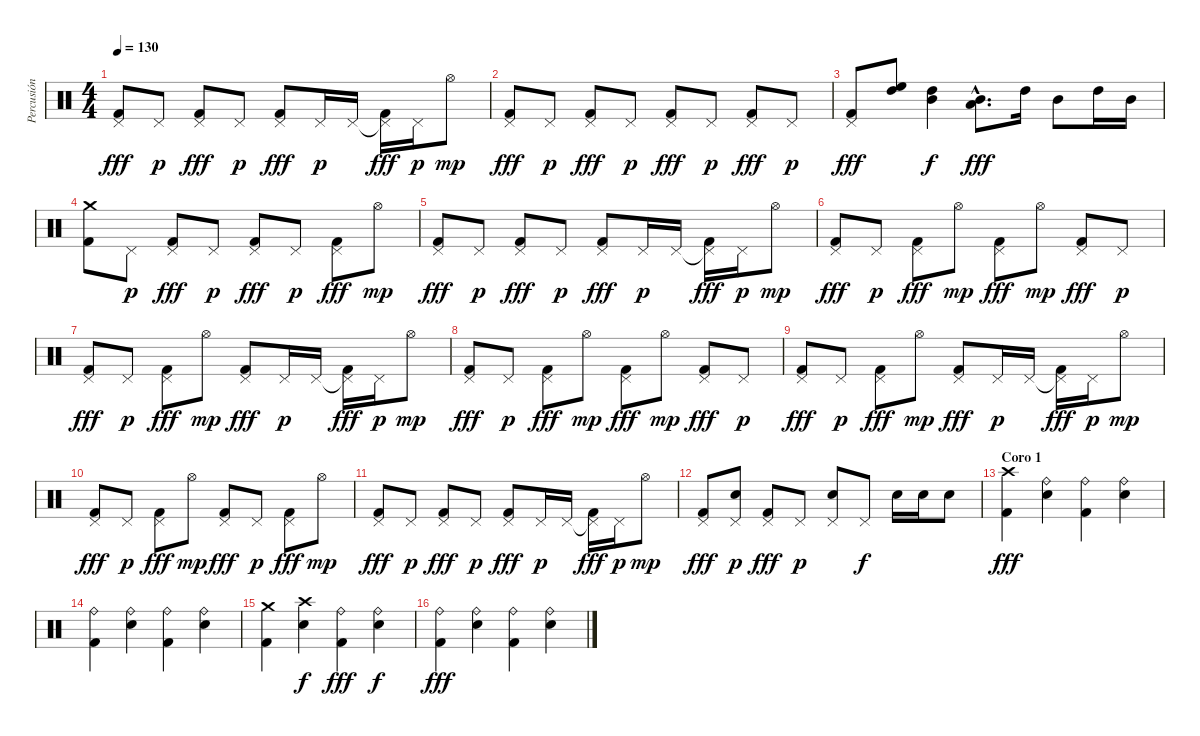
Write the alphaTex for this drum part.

\track ("Percusión" "Percusión") {instrument percussion}
\staff {score}
\articulation defaults
\ts (4 4)
\tempo 130
\clef neutral
\ks c
("Pedal Hi-Hat (hit)" "Kick (hit) 2").8{dy fff} "Pedal Hi-Hat (hit)".8{dy p} ("Pedal Hi-Hat (hit)" "Kick (hit) 2").8{dy fff} "Pedal Hi-Hat (hit)".8{dy p} ("Pedal Hi-Hat (hit)" "Kick (hit) 2").8{dy fff} "Pedal Hi-Hat (hit)".16{dy p} "Pedal Hi-Hat (hit)".16 ("Pedal Hi-Hat (hit)"{t} "Kick (hit) 2").16{dy fff} "Pedal Hi-Hat (hit)".16{dy p} "Hi-Hat (open)".8{dy mp} |
("Pedal Hi-Hat (hit)" "Kick (hit) 2").8{dy fff} "Pedal Hi-Hat (hit)".8{dy p} ("Pedal Hi-Hat (hit)" "Kick (hit) 2").8{dy fff} "Pedal Hi-Hat (hit)".8{dy p} ("Pedal Hi-Hat (hit)" "Kick (hit) 2").8{dy fff} "Pedal Hi-Hat (hit)".8{dy p} ("Pedal Hi-Hat (hit)" "Kick (hit) 2").8{dy fff} "Pedal Hi-Hat (hit)".8{dy p} |
("Pedal Hi-Hat (hit)" "Kick (hit) 2").8{dy fff} ("High Tom (hit)" "High Floor Tom (hit)").8 ("Mid Tom (hit)" "High Tom (hit)").4{dy f} ("Low Tom (hit)"{hac} "Mid Tom (hit)"{hac}).8{d dy fff} "High Tom (hit)".16 "Mid Tom (hit)".8 "High Tom (hit)".16 "Mid Tom (hit)".16 |
("Crash medium (hit)" "Kick (hit) 2").8 "Pedal Hi-Hat (hit)".8{dy p} ("Pedal Hi-Hat (hit)" "Kick (hit) 2").8{dy fff} "Pedal Hi-Hat (hit)".8{dy p} ("Pedal Hi-Hat (hit)" "Kick (hit) 2").8{dy fff} "Pedal Hi-Hat (hit)".8{dy p} ("Pedal Hi-Hat (hit)" "Kick (hit) 2").8{dy fff} "Hi-Hat (open)".8{dy mp} |
("Pedal Hi-Hat (hit)" "Kick (hit) 2").8{dy fff} "Pedal Hi-Hat (hit)".8{dy p} ("Pedal Hi-Hat (hit)" "Kick (hit) 2").8{dy fff} "Pedal Hi-Hat (hit)".8{dy p} ("Pedal Hi-Hat (hit)" "Kick (hit) 2").8{dy fff} "Pedal Hi-Hat (hit)".16{dy p} "Pedal Hi-Hat (hit)".16 ("Pedal Hi-Hat (hit)"{t} "Kick (hit) 2").16{dy fff} "Pedal Hi-Hat (hit)".16{dy p} "Hi-Hat (open)".8{dy mp} |
("Pedal Hi-Hat (hit)" "Kick (hit) 2").8{dy fff} "Pedal Hi-Hat (hit)".8{dy p} ("Pedal Hi-Hat (hit)" "Kick (hit) 2").8{dy fff} "Hi-Hat (open)".8{dy mp} ("Pedal Hi-Hat (hit)" "Kick (hit) 2").8{dy fff} "Hi-Hat (open)".8{dy mp} ("Pedal Hi-Hat (hit)" "Kick (hit) 2").8{dy fff} "Pedal Hi-Hat (hit)".8{dy p} |
("Pedal Hi-Hat (hit)" "Kick (hit) 2").8{dy fff} "Pedal Hi-Hat (hit)".8{dy p} ("Pedal Hi-Hat (hit)" "Kick (hit) 2").8{dy fff} "Hi-Hat (open)".8{dy mp} ("Pedal Hi-Hat (hit)" "Kick (hit) 2").8{dy fff} "Pedal Hi-Hat (hit)".16{dy p} "Pedal Hi-Hat (hit)".16 ("Pedal Hi-Hat (hit)"{t} "Kick (hit) 2").16{dy fff} "Pedal Hi-Hat (hit)".16{dy p} "Hi-Hat (open)".8{dy mp} |
("Pedal Hi-Hat (hit)" "Kick (hit) 2").8{dy fff} "Pedal Hi-Hat (hit)".8{dy p} ("Pedal Hi-Hat (hit)" "Kick (hit) 2").8{dy fff} "Hi-Hat (open)".8{dy mp} ("Pedal Hi-Hat (hit)" "Kick (hit) 2").8{dy fff} "Hi-Hat (open)".8{dy mp} ("Pedal Hi-Hat (hit)" "Kick (hit) 2").8{dy fff} "Pedal Hi-Hat (hit)".8{dy p} |
("Pedal Hi-Hat (hit)" "Kick (hit) 2").8{dy fff} "Pedal Hi-Hat (hit)".8{dy p} ("Pedal Hi-Hat (hit)" "Kick (hit) 2").8{dy fff} "Hi-Hat (open)".8{dy mp} ("Pedal Hi-Hat (hit)" "Kick (hit) 2").8{dy fff} "Pedal Hi-Hat (hit)".16{dy p} "Pedal Hi-Hat (hit)".16 ("Pedal Hi-Hat (hit)"{t} "Kick (hit) 2").16{dy fff} "Pedal Hi-Hat (hit)".16{dy p} "Hi-Hat (open)".8{dy mp} |
("Pedal Hi-Hat (hit)" "Kick (hit) 2").8{dy fff} "Pedal Hi-Hat (hit)".8{dy p} ("Pedal Hi-Hat (hit)" "Kick (hit) 2").8{dy fff} "Hi-Hat (open)".8{dy mp} ("Pedal Hi-Hat (hit)" "Kick (hit) 2").8{dy fff} "Pedal Hi-Hat (hit)".8{dy p} ("Pedal Hi-Hat (hit)" "Kick (hit) 2").8{dy fff} "Hi-Hat (open)".8{dy mp} |
("Pedal Hi-Hat (hit)" "Kick (hit) 2").8{dy fff} "Pedal Hi-Hat (hit)".8{dy p} ("Pedal Hi-Hat (hit)" "Kick (hit) 2").8{dy fff} "Pedal Hi-Hat (hit)".8{dy p} ("Pedal Hi-Hat (hit)" "Kick (hit) 2").8{dy fff} "Pedal Hi-Hat (hit)".16{dy p} "Pedal Hi-Hat (hit)".16 ("Pedal Hi-Hat (hit)"{t} "Kick (hit) 2").16{dy fff} "Pedal Hi-Hat (hit)".16{dy p} "Hi-Hat (open)".8{dy mp} |
("Pedal Hi-Hat (hit)" "Kick (hit) 2").8{dy fff} ("Pedal Hi-Hat (hit)" "Snare (hit) 2").8{dy p} ("Pedal Hi-Hat (hit)" "Kick (hit) 2").8{dy fff} "Pedal Hi-Hat (hit)".8{dy p} ("Pedal Hi-Hat (hit)" "Snare (hit) 2").8 "Pedal Hi-Hat (hit)".8{dy f} "Snare (hit) 2".16 "Snare (hit) 2".16 "Snare (hit) 2".8 |
\section ("" "Coro 1")
("Crash high (hit)" "Kick (hit) 2").4{dy fff} ("Ride (bell)" "Snare (hit) 2").4 ("Ride (bell)" "Kick (hit) 2").4 ("Ride (bell)" "Snare (hit) 2").4 |
("Ride (bell)" "Kick (hit) 2").4 ("Ride (bell)" "Snare (hit) 2").4 ("Ride (bell)" "Kick (hit) 2").4 ("Ride (bell)" "Snare (hit) 2").4 |
("Crash medium (hit)" "Kick (hit) 2").4 ("Crash high (hit)" "Snare (hit) 2").4{dy f} ("Ride (bell)" "Kick (hit) 2").4{dy fff} ("Ride (bell)" "Snare (hit) 2").4{dy f} |
("Ride (bell)" "Kick (hit) 2").4{dy fff} ("Ride (bell)" "Snare (hit) 2").4 ("Ride (bell)" "Kick (hit) 2").4 ("Ride (bell)" "Snare (hit) 2").4
